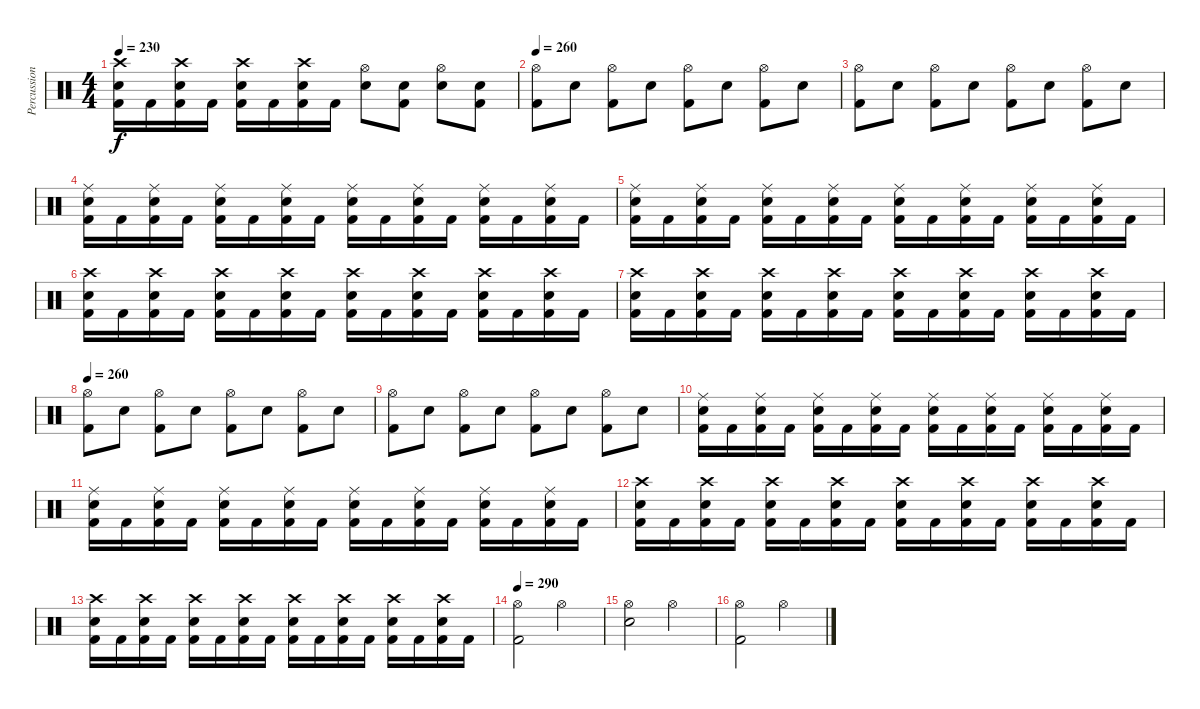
\track ("Percussion" "Percussion") {instrument percussion}
\staff {score}
\articulation defaults
\ts (4 4)
\tempo 230
\clef neutral
\ks c
("Crash high (hit)" "Electric Snare (hit)" "Kick (hit) 2").16{dy f} "Kick (hit) 2".16 ("Crash high (hit)" "Electric Snare (hit)" "Kick (hit) 2").16 "Kick (hit) 2".16 ("Crash high (hit)" "Electric Snare (hit)" "Kick (hit) 2").16 "Kick (hit) 2".16 ("Crash high (hit)" "Electric Snare (hit)" "Kick (hit) 2").16 "Kick (hit) 2".16 ("Hi-Hat (open)" "Electric Snare (hit)").8 ("Electric Snare (hit)" "Kick (hit) 2").8 ("Hi-Hat (open)" "Electric Snare (hit)").8 ("Electric Snare (hit)" "Kick (hit) 2").8 |
\tempo 260
("Hi-Hat (open)" "Kick (hit) 2").8 "Electric Snare (hit)".8 ("Hi-Hat (open)" "Kick (hit) 2").8 "Electric Snare (hit)".8 ("Hi-Hat (open)" "Kick (hit) 2").8 "Electric Snare (hit)".8 ("Hi-Hat (open)" "Kick (hit) 2").8 "Electric Snare (hit)".8 |
("Hi-Hat (open)" "Kick (hit) 2").8 "Electric Snare (hit)".8 ("Hi-Hat (open)" "Kick (hit) 2").8 "Electric Snare (hit)".8 ("Hi-Hat (open)" "Kick (hit) 2").8 "Electric Snare (hit)".8 ("Hi-Hat (open)" "Kick (hit) 2").8 "Electric Snare (hit)".8 |
("Ride (middle)" "Electric Snare (hit)" "Kick (hit) 2").16 "Kick (hit) 2".16 ("Ride (middle)" "Electric Snare (hit)" "Kick (hit) 2").16 "Kick (hit) 2".16 ("Ride (middle)" "Electric Snare (hit)" "Kick (hit) 2").16 "Kick (hit) 2".16 ("Ride (middle)" "Electric Snare (hit)" "Kick (hit) 2").16 "Kick (hit) 2".16 ("Ride (middle)" "Electric Snare (hit)" "Kick (hit) 2").16 "Kick (hit) 2".16 ("Ride (middle)" "Electric Snare (hit)" "Kick (hit) 2").16 "Kick (hit) 2".16 ("Ride (middle)" "Electric Snare (hit)" "Kick (hit) 2").16 "Kick (hit) 2".16 ("Ride (middle)" "Electric Snare (hit)" "Kick (hit) 2").16 "Kick (hit) 2".16 |
("Ride (middle)" "Electric Snare (hit)" "Kick (hit) 2").16 "Kick (hit) 2".16 ("Ride (middle)" "Electric Snare (hit)" "Kick (hit) 2").16 "Kick (hit) 2".16 ("Ride (middle)" "Electric Snare (hit)" "Kick (hit) 2").16 "Kick (hit) 2".16 ("Ride (middle)" "Electric Snare (hit)" "Kick (hit) 2").16 "Kick (hit) 2".16 ("Ride (middle)" "Electric Snare (hit)" "Kick (hit) 2").16 "Kick (hit) 2".16 ("Ride (middle)" "Electric Snare (hit)" "Kick (hit) 2").16 "Kick (hit) 2".16 ("Ride (middle)" "Electric Snare (hit)" "Kick (hit) 2").16 "Kick (hit) 2".16 ("Ride (middle)" "Electric Snare (hit)" "Kick (hit) 2").16 "Kick (hit) 2".16 |
("Crash high (hit)" "Electric Snare (hit)" "Kick (hit) 2").16 "Kick (hit) 2".16 ("Crash high (hit)" "Electric Snare (hit)" "Kick (hit) 2").16 "Kick (hit) 2".16 ("Crash high (hit)" "Electric Snare (hit)" "Kick (hit) 2").16 "Kick (hit) 2".16 ("Crash high (hit)" "Electric Snare (hit)" "Kick (hit) 2").16 "Kick (hit) 2".16 ("Crash high (hit)" "Electric Snare (hit)" "Kick (hit) 2").16 "Kick (hit) 2".16 ("Crash high (hit)" "Electric Snare (hit)" "Kick (hit) 2").16 "Kick (hit) 2".16 ("Crash high (hit)" "Electric Snare (hit)" "Kick (hit) 2").16 "Kick (hit) 2".16 ("Crash high (hit)" "Electric Snare (hit)" "Kick (hit) 2").16 "Kick (hit) 2".16 |
("Crash high (hit)" "Electric Snare (hit)" "Kick (hit) 2").16 "Kick (hit) 2".16 ("Crash high (hit)" "Electric Snare (hit)" "Kick (hit) 2").16 "Kick (hit) 2".16 ("Crash high (hit)" "Electric Snare (hit)" "Kick (hit) 2").16 "Kick (hit) 2".16 ("Crash high (hit)" "Electric Snare (hit)" "Kick (hit) 2").16 "Kick (hit) 2".16 ("Crash high (hit)" "Electric Snare (hit)" "Kick (hit) 2").16 "Kick (hit) 2".16 ("Crash high (hit)" "Electric Snare (hit)" "Kick (hit) 2").16 "Kick (hit) 2".16 ("Crash high (hit)" "Electric Snare (hit)" "Kick (hit) 2").16 "Kick (hit) 2".16 ("Crash high (hit)" "Electric Snare (hit)" "Kick (hit) 2").16 "Kick (hit) 2".16 |
\tempo 260
("Hi-Hat (open)" "Kick (hit) 2").8 "Electric Snare (hit)".8 ("Hi-Hat (open)" "Kick (hit) 2").8 "Electric Snare (hit)".8 ("Hi-Hat (open)" "Kick (hit) 2").8 "Electric Snare (hit)".8 ("Hi-Hat (open)" "Kick (hit) 2").8 "Electric Snare (hit)".8 |
("Hi-Hat (open)" "Kick (hit) 2").8 "Electric Snare (hit)".8 ("Hi-Hat (open)" "Kick (hit) 2").8 "Electric Snare (hit)".8 ("Hi-Hat (open)" "Kick (hit) 2").8 "Electric Snare (hit)".8 ("Hi-Hat (open)" "Kick (hit) 2").8 "Electric Snare (hit)".8 |
("Ride (middle)" "Electric Snare (hit)" "Kick (hit) 2").16 "Kick (hit) 2".16 ("Ride (middle)" "Electric Snare (hit)" "Kick (hit) 2").16 "Kick (hit) 2".16 ("Ride (middle)" "Electric Snare (hit)" "Kick (hit) 2").16 "Kick (hit) 2".16 ("Ride (middle)" "Electric Snare (hit)" "Kick (hit) 2").16 "Kick (hit) 2".16 ("Ride (middle)" "Electric Snare (hit)" "Kick (hit) 2").16 "Kick (hit) 2".16 ("Ride (middle)" "Electric Snare (hit)" "Kick (hit) 2").16 "Kick (hit) 2".16 ("Ride (middle)" "Electric Snare (hit)" "Kick (hit) 2").16 "Kick (hit) 2".16 ("Ride (middle)" "Electric Snare (hit)" "Kick (hit) 2").16 "Kick (hit) 2".16 |
("Ride (middle)" "Electric Snare (hit)" "Kick (hit) 2").16 "Kick (hit) 2".16 ("Ride (middle)" "Electric Snare (hit)" "Kick (hit) 2").16 "Kick (hit) 2".16 ("Ride (middle)" "Electric Snare (hit)" "Kick (hit) 2").16 "Kick (hit) 2".16 ("Ride (middle)" "Electric Snare (hit)" "Kick (hit) 2").16 "Kick (hit) 2".16 ("Ride (middle)" "Electric Snare (hit)" "Kick (hit) 2").16 "Kick (hit) 2".16 ("Ride (middle)" "Electric Snare (hit)" "Kick (hit) 2").16 "Kick (hit) 2".16 ("Ride (middle)" "Electric Snare (hit)" "Kick (hit) 2").16 "Kick (hit) 2".16 ("Ride (middle)" "Electric Snare (hit)" "Kick (hit) 2").16 "Kick (hit) 2".16 |
("Crash high (hit)" "Electric Snare (hit)" "Kick (hit) 2").16 "Kick (hit) 2".16 ("Crash high (hit)" "Electric Snare (hit)" "Kick (hit) 2").16 "Kick (hit) 2".16 ("Crash high (hit)" "Electric Snare (hit)" "Kick (hit) 2").16 "Kick (hit) 2".16 ("Crash high (hit)" "Electric Snare (hit)" "Kick (hit) 2").16 "Kick (hit) 2".16 ("Crash high (hit)" "Electric Snare (hit)" "Kick (hit) 2").16 "Kick (hit) 2".16 ("Crash high (hit)" "Electric Snare (hit)" "Kick (hit) 2").16 "Kick (hit) 2".16 ("Crash high (hit)" "Electric Snare (hit)" "Kick (hit) 2").16 "Kick (hit) 2".16 ("Crash high (hit)" "Electric Snare (hit)" "Kick (hit) 2").16 "Kick (hit) 2".16 |
("Crash high (hit)" "Electric Snare (hit)" "Kick (hit) 2").16 "Kick (hit) 2".16 ("Crash high (hit)" "Electric Snare (hit)" "Kick (hit) 2").16 "Kick (hit) 2".16 ("Crash high (hit)" "Electric Snare (hit)" "Kick (hit) 2").16 "Kick (hit) 2".16 ("Crash high (hit)" "Electric Snare (hit)" "Kick (hit) 2").16 "Kick (hit) 2".16 ("Crash high (hit)" "Electric Snare (hit)" "Kick (hit) 2").16 "Kick (hit) 2".16 ("Crash high (hit)" "Electric Snare (hit)" "Kick (hit) 2").16 "Kick (hit) 2".16 ("Crash high (hit)" "Electric Snare (hit)" "Kick (hit) 2").16 "Kick (hit) 2".16 ("Crash high (hit)" "Electric Snare (hit)" "Kick (hit) 2").16 "Kick (hit) 2".16 |
\tempo 290
("Hi-Hat (open)" "Kick (hit) 2").2 "Hi-Hat (open)".2 |
("Hi-Hat (open)" "Electric Snare (hit)").2 "Hi-Hat (open)".2 |
("Hi-Hat (open)" "Kick (hit) 2").2 "Hi-Hat (open)".2
